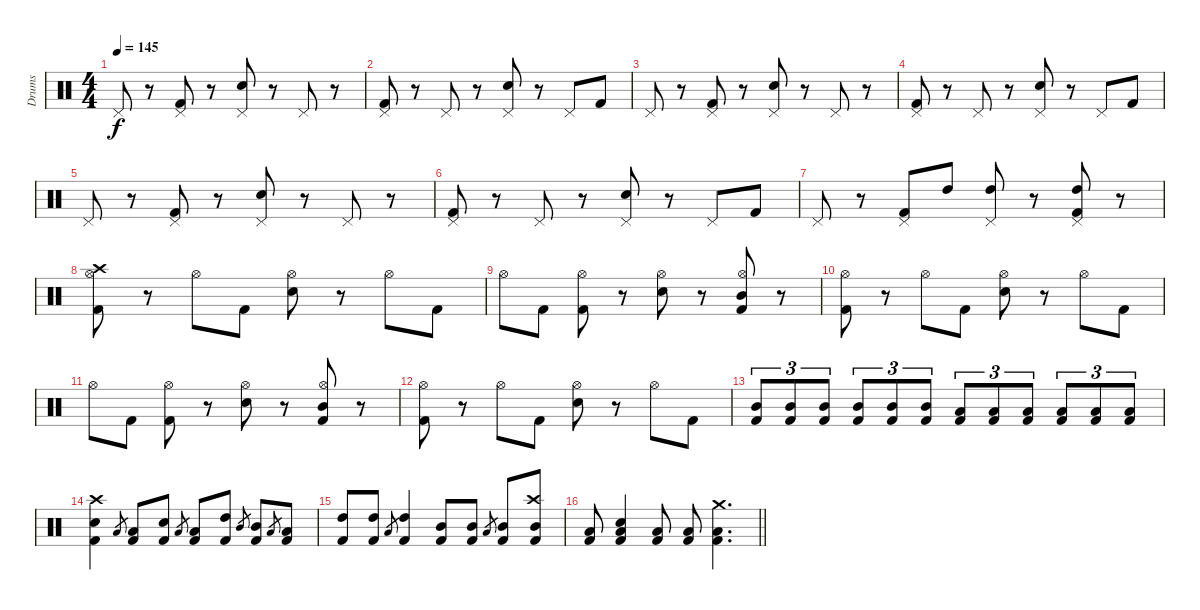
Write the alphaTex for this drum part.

\track ("Drums" "Drums") {instrument percussion}
\staff {score}
\articulation defaults
\ts (4 4)
\tempo 145
\clef neutral
\ks c "Pedal Hi-Hat (hit)".8{dy f}
r.8 ("Pedal Hi-Hat (hit)" "Kick (hit) 2").8 r.8 ("Pedal Hi-Hat (hit)" "Snare (hit) 2").8 r.8 "Pedal Hi-Hat (hit)".8 r.8 |
("Pedal Hi-Hat (hit)" "Kick (hit) 2").8 r.8 "Pedal Hi-Hat (hit)".8 r.8 ("Pedal Hi-Hat (hit)" "Snare (hit) 2").8 r.8 "Pedal Hi-Hat (hit)".8 "Kick (hit) 2".8 |
"Pedal Hi-Hat (hit)".8 r.8 ("Pedal Hi-Hat (hit)" "Kick (hit) 2").8 r.8 ("Pedal Hi-Hat (hit)" "Snare (hit) 2").8 r.8 "Pedal Hi-Hat (hit)".8 r.8 |
("Pedal Hi-Hat (hit)" "Kick (hit) 2").8 r.8 "Pedal Hi-Hat (hit)".8 r.8 ("Pedal Hi-Hat (hit)" "Snare (hit) 2").8 r.8 "Pedal Hi-Hat (hit)".8 "Kick (hit) 2".8 |
"Pedal Hi-Hat (hit)".8 r.8 ("Pedal Hi-Hat (hit)" "Kick (hit) 2").8 r.8 ("Pedal Hi-Hat (hit)" "Snare (hit) 2").8 r.8 "Pedal Hi-Hat (hit)".8 r.8 |
("Pedal Hi-Hat (hit)" "Kick (hit) 2").8 r.8 "Pedal Hi-Hat (hit)".8 r.8 ("Pedal Hi-Hat (hit)" "Snare (hit) 2").8 r.8 "Pedal Hi-Hat (hit)".8 "Kick (hit) 2".8 |
"Pedal Hi-Hat (hit)".8 r.8 ("Pedal Hi-Hat (hit)" "Kick (hit) 2").8 "High Tom (hit)".8 ("Pedal Hi-Hat (hit)" "High Tom (hit)").8 r.8 ("Pedal Hi-Hat (hit)" "High Tom (hit)" "Kick (hit) 2").8 r.8 |
("Hi-Hat (open)" "Kick (hit) 2" "Crash high (hit)").8 r.8 "Hi-Hat (open)".8 "Kick (hit) 2".8 ("Hi-Hat (open)" "Snare (hit) 2").8 r.8 "Hi-Hat (open)".8 "Kick (hit) 2".8 |
"Hi-Hat (open)".8 "Kick (hit) 2".8 ("Hi-Hat (open)" "Kick (hit) 2").8 r.8 ("Hi-Hat (open)" "Snare (hit) 2").8 r.8 ("Hi-Hat (open)" "Kick (hit) 2" "Mid Tom (hit)").8 r.8 |
("Hi-Hat (open)" "Kick (hit) 2").8 r.8 "Hi-Hat (open)".8 "Kick (hit) 2".8 ("Hi-Hat (open)" "Snare (hit) 2").8 r.8 "Hi-Hat (open)".8 "Kick (hit) 2".8 |
"Hi-Hat (open)".8 "Kick (hit) 2".8 ("Hi-Hat (open)" "Kick (hit) 2").8 r.8 ("Hi-Hat (open)" "Snare (hit) 2").8 r.8 ("Hi-Hat (open)" "Kick (hit) 2" "Mid Tom (hit)").8 r.8 |
("Hi-Hat (open)" "Kick (hit) 2").8 r.8 "Hi-Hat (open)".8 "Kick (hit) 2".8 ("Hi-Hat (open)" "Snare (hit) 2").8 r.8 "Hi-Hat (open)".8 "Kick (hit) 2".8 |
("Mid Tom (hit)" "Kick (hit) 2").8{tu (3 2)} ("Mid Tom (hit)" "Kick (hit) 2").8{tu (3 2)} ("Mid Tom (hit)" "Kick (hit) 2").8{tu (3 2)} ("Mid Tom (hit)" "Kick (hit) 2").8{tu (3 2)} ("Mid Tom (hit)" "Kick (hit) 2").8{tu (3 2)} ("Mid Tom (hit)" "Kick (hit) 2").8{tu (3 2)} ("Low Tom (hit)" "Kick (hit) 2").8{tu (3 2)} ("Low Tom (hit)" "Kick (hit) 2").8{tu (3 2)} ("Low Tom (hit)" "Kick (hit) 2").8{tu (3 2)} ("Low Tom (hit)" "Kick (hit) 2").8{tu (3 2)} ("Low Tom (hit)" "Kick (hit) 2").8{tu (3 2)} ("Low Tom (hit)" "Kick (hit) 2").8{tu (3 2)} |
("Crash high (hit)" "Kick (hit) 2" "Snare (hit) 2").4 "Low Tom (hit)".8{gr} ("Kick (hit) 2" "Low Tom (hit)").8 ("Kick (hit) 2" "Snare (hit) 2").8 "Low Tom (hit)".8{gr} ("Kick (hit) 2" "Low Tom (hit)").8 ("Kick (hit) 2" "High Tom (hit)").8 "Mid Tom (hit)".8{gr} ("Kick (hit) 2" "Mid Tom (hit)").8 "Low Tom (hit)".8{gr} ("Kick (hit) 2" "Low Tom (hit)").8 |
("Kick (hit) 2" "High Tom (hit)").8 ("Kick (hit) 2" "High Tom (hit)").8 "Low Tom (hit)".8{gr} ("Kick (hit) 2" "High Tom (hit)").4 ("Kick (hit) 2" "Mid Tom (hit)").8 ("Kick (hit) 2" "Mid Tom (hit)").8 "Low Tom (hit)".8{gr} ("Kick (hit) 2" "Mid Tom (hit)").8 ("Kick (hit) 2" "Mid Tom (hit)" "Crash high (hit)").8 |
\barLineRight lightlight
("Kick (hit) 2" "Low Tom (hit)").8 ("Kick (hit) 2" "Low Tom (hit)" "Snare (hit) 2").4 ("Kick (hit) 2" "Low Tom (hit)").8 ("Kick (hit) 2" "Low Tom (hit)").8 ("Kick (hit) 2" "Crash medium (hit)" "Low Tom (hit)").4{d}
